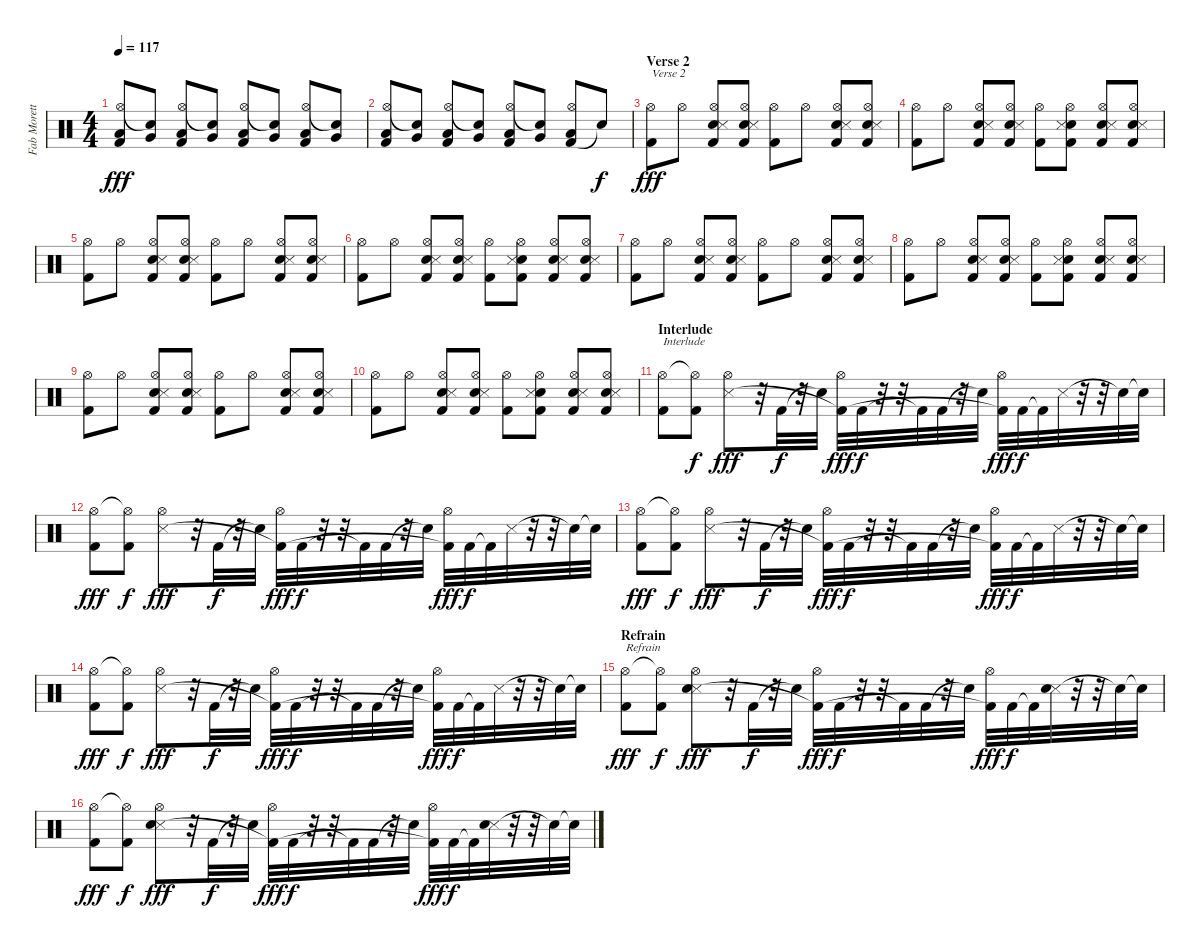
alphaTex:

\track ("Fab Moretti" "Fab Morett") {instrument percussion}
\staff {score}
\articulation defaults
\ts (4 4)
\tempo 117
\clef neutral
\ks c
("Kick (hit) 2" "Hi-Hat (open)" "Low Floor Tom (hit)").8{dy fff} ("Very Low Tom (hit)" "Snare (hit)"{t}).8 ("Kick (hit) 2" "Hi-Hat (open)" "Low Floor Tom (hit)").8 ("Very Low Tom (hit)" "Snare (hit)"{t}).8 ("Kick (hit) 2" "Hi-Hat (open)" "Low Floor Tom (hit)").8 ("Very Low Tom (hit)" "Snare (hit)"{t}).8 ("Kick (hit) 2" "Hi-Hat (open)" "Low Floor Tom (hit)").8 ("Very Low Tom (hit)" "Snare (hit)"{t}).8 |
("Kick (hit) 2" "Hi-Hat (open)" "Low Floor Tom (hit)").8 ("Very Low Tom (hit)" "Snare (hit)"{t}).8 ("Kick (hit) 2" "Hi-Hat (open)" "Low Floor Tom (hit)").8 ("Very Low Tom (hit)" "Snare (hit)"{t}).8 ("Kick (hit) 2" "Hi-Hat (open)" "Low Floor Tom (hit)").8 ("Very Low Tom (hit)" "Snare (hit)"{t}).8 ("Kick (hit) 2" "Hi-Hat (open)" "Low Floor Tom (hit)").8 "Snare (hit)"{t}.8{dy f} |
\section ("" "Verse 2")
("Kick (hit) 2" "Hi-Hat (open)").8{txt "Verse 2" dy fff} "Hi-Hat (open)".8 ("Snare (hit) 2" "Snare (side stick) 3" "Kick (hit) 2" "Hi-Hat (open)").8 ("Snare (hit) 2" "Snare (side stick) 3" "Kick (hit) 2" "Hi-Hat (open)").8 ("Kick (hit) 2" "Hi-Hat (open)").8 "Hi-Hat (open)".8 ("Snare (hit) 2" "Snare (side stick) 3" "Kick (hit) 2" "Hi-Hat (open)").8 ("Snare (hit) 2" "Snare (side stick) 3" "Kick (hit) 2" "Hi-Hat (open)").8 |
("Kick (hit) 2" "Hi-Hat (open)").8 "Hi-Hat (open)".8 ("Snare (hit) 2" "Snare (side stick) 3" "Kick (hit) 2" "Hi-Hat (open)").8 ("Snare (hit) 2" "Snare (side stick) 3" "Kick (hit) 2" "Hi-Hat (open)").8 ("Kick (hit) 2" "Hi-Hat (open)").8 ("Snare (hit) 2" "Snare (side stick) 3" "Kick (hit) 2" "Hi-Hat (open)").8 ("Snare (hit) 2" "Snare (side stick) 3" "Kick (hit) 2" "Hi-Hat (open)").8 ("Snare (hit) 2" "Snare (side stick) 3" "Kick (hit) 2" "Hi-Hat (open)").8 |
("Kick (hit) 2" "Hi-Hat (open)").8 "Hi-Hat (open)".8 ("Snare (hit) 2" "Snare (side stick) 3" "Kick (hit) 2" "Hi-Hat (open)").8 ("Snare (hit) 2" "Snare (side stick) 3" "Kick (hit) 2" "Hi-Hat (open)").8 ("Kick (hit) 2" "Hi-Hat (open)").8 "Hi-Hat (open)".8 ("Snare (hit) 2" "Snare (side stick) 3" "Kick (hit) 2" "Hi-Hat (open)").8 ("Snare (hit) 2" "Snare (side stick) 3" "Kick (hit) 2" "Hi-Hat (open)").8 |
("Kick (hit) 2" "Hi-Hat (open)").8 "Hi-Hat (open)".8 ("Snare (hit) 2" "Snare (side stick) 3" "Kick (hit) 2" "Hi-Hat (open)").8 ("Snare (hit) 2" "Snare (side stick) 3" "Kick (hit) 2" "Hi-Hat (open)").8 ("Kick (hit) 2" "Hi-Hat (open)").8 ("Snare (hit) 2" "Snare (side stick) 3" "Kick (hit) 2" "Hi-Hat (open)").8 ("Snare (hit) 2" "Snare (side stick) 3" "Kick (hit) 2" "Hi-Hat (open)").8 ("Snare (hit) 2" "Snare (side stick) 3" "Kick (hit) 2" "Hi-Hat (open)").8 |
("Kick (hit) 2" "Hi-Hat (open)").8 "Hi-Hat (open)".8 ("Snare (hit) 2" "Snare (side stick) 3" "Kick (hit) 2" "Hi-Hat (open)").8 ("Snare (hit) 2" "Snare (side stick) 3" "Kick (hit) 2" "Hi-Hat (open)").8 ("Kick (hit) 2" "Hi-Hat (open)").8 "Hi-Hat (open)".8 ("Snare (hit) 2" "Snare (side stick) 3" "Kick (hit) 2" "Hi-Hat (open)").8 ("Snare (hit) 2" "Snare (side stick) 3" "Kick (hit) 2" "Hi-Hat (open)").8 |
("Kick (hit) 2" "Hi-Hat (open)").8 "Hi-Hat (open)".8 ("Snare (hit) 2" "Snare (side stick) 3" "Kick (hit) 2" "Hi-Hat (open)").8 ("Snare (hit) 2" "Snare (side stick) 3" "Kick (hit) 2" "Hi-Hat (open)").8 ("Kick (hit) 2" "Hi-Hat (open)").8 ("Snare (hit) 2" "Snare (side stick) 3" "Kick (hit) 2" "Hi-Hat (open)").8 ("Snare (hit) 2" "Snare (side stick) 3" "Kick (hit) 2" "Hi-Hat (open)").8 ("Snare (hit) 2" "Snare (side stick) 3" "Kick (hit) 2" "Hi-Hat (open)").8 |
("Kick (hit) 2" "Hi-Hat (open)").8 "Hi-Hat (open)".8 ("Snare (hit) 2" "Snare (side stick) 3" "Kick (hit) 2" "Hi-Hat (open)").8 ("Snare (hit) 2" "Snare (side stick) 3" "Kick (hit) 2" "Hi-Hat (open)").8 ("Kick (hit) 2" "Hi-Hat (open)").8 "Hi-Hat (open)".8 ("Snare (hit) 2" "Snare (side stick) 3" "Kick (hit) 2" "Hi-Hat (open)").8 ("Snare (hit) 2" "Snare (side stick) 3" "Kick (hit) 2" "Hi-Hat (open)").8 |
("Kick (hit) 2" "Hi-Hat (open)").8 "Hi-Hat (open)".8 ("Snare (hit) 2" "Snare (side stick) 3" "Kick (hit) 2" "Hi-Hat (open)").8 ("Snare (hit) 2" "Snare (side stick) 3" "Kick (hit) 2" "Hi-Hat (open)").8 ("Kick (hit) 2" "Hi-Hat (open)").8 ("Snare (hit) 2" "Snare (side stick) 3" "Kick (hit) 2" "Hi-Hat (open)").8 ("Snare (hit) 2" "Snare (side stick) 3" "Kick (hit) 2" "Hi-Hat (open)").8 ("Snare (hit) 2" "Snare (side stick) 3" "Kick (hit) 2" "Hi-Hat (open)").8 |
\section ("" "Interlude")
("Hi-Hat (open)" "Kick (hit) 2").8{txt "Interlude"} ("Hi-Hat (open)"{t} "Kick (hit) 2").8{dy f} ("Hi-Hat (open)" "Snare (side stick) 3").8{dy fff} r.32 "Kick (hit) 2".32{dy f} r.32 "Snare (hit)"{t}.32 ("Hi-Hat (open)" "Kick (hit) 2"{t}).32{dy fff} "Kick (hit) 2".32{dy f} r.32 r.32 "Kick (hit) 2"{t}.32 "Kick (hit) 2".32 r.32 "Snare (hit)"{t}.32 ("Hi-Hat (open)" "Kick (hit) 2"{t}).32{dy fff} "Kick (hit) 2".32{dy f} "Kick (hit) 2"{t}.32 "Snare (side stick) 3".32 r.32 r.32 "Snare (hit)"{t}.32 "Snare (hit)"{t}.32 |
("Hi-Hat (open)" "Kick (hit) 2").8{dy fff} ("Hi-Hat (open)"{t} "Kick (hit) 2").8{dy f} ("Hi-Hat (open)" "Snare (side stick) 3").8{dy fff} r.32 "Kick (hit) 2".32{dy f} r.32 "Snare (hit)"{t}.32 ("Hi-Hat (open)" "Kick (hit) 2"{t}).32{dy fff} "Kick (hit) 2".32{dy f} r.32 r.32 "Kick (hit) 2"{t}.32 "Kick (hit) 2".32 r.32 "Snare (hit)"{t}.32 ("Hi-Hat (open)" "Kick (hit) 2"{t}).32{dy fff} "Kick (hit) 2".32{dy f} "Kick (hit) 2"{t}.32 "Snare (side stick) 3".32 r.32 r.32 "Snare (hit)"{t}.32 "Snare (hit)"{t}.32 |
("Hi-Hat (open)" "Kick (hit) 2").8{dy fff} ("Hi-Hat (open)"{t} "Kick (hit) 2").8{dy f} ("Hi-Hat (open)" "Snare (side stick) 3").8{dy fff} r.32 "Kick (hit) 2".32{dy f} r.32 "Snare (hit)"{t}.32 ("Hi-Hat (open)" "Kick (hit) 2"{t}).32{dy fff} "Kick (hit) 2".32{dy f} r.32 r.32 "Kick (hit) 2"{t}.32 "Kick (hit) 2".32 r.32 "Snare (hit)"{t}.32 ("Hi-Hat (open)" "Kick (hit) 2"{t}).32{dy fff} "Kick (hit) 2".32{dy f} "Kick (hit) 2"{t}.32 "Snare (side stick) 3".32 r.32 r.32 "Snare (hit)"{t}.32 "Snare (hit)"{t}.32 |
("Hi-Hat (open)" "Kick (hit) 2").8{dy fff} ("Hi-Hat (open)"{t} "Kick (hit) 2").8{dy f} ("Hi-Hat (open)" "Snare (side stick) 3").8{dy fff} r.32 "Kick (hit) 2".32{dy f} r.32 "Snare (hit)"{t}.32 ("Hi-Hat (open)" "Kick (hit) 2"{t}).32{dy fff} "Kick (hit) 2".32{dy f} r.32 r.32 "Kick (hit) 2"{t}.32 "Kick (hit) 2".32 r.32 "Snare (hit)"{t}.32 ("Hi-Hat (open)" "Kick (hit) 2"{t}).32{dy fff} "Kick (hit) 2".32{dy f} "Kick (hit) 2"{t}.32 "Snare (side stick) 3".32 r.32 r.32 "Snare (hit)"{t}.32 "Snare (hit)"{t}.32 |
\section ("" "Refrain")
("Hi-Hat (open)" "Kick (hit) 2").8{txt "Refrain" dy fff} ("Hi-Hat (open)"{t} "Kick (hit) 2").8{dy f} ("Hi-Hat (open)" "Snare (side stick) 3" "Snare (hit) 2").8{dy fff} r.32 "Kick (hit) 2".32{dy f} r.32 "Snare (hit)"{t}.32 ("Hi-Hat (open)" "Kick (hit) 2"{t}).32{dy fff} "Kick (hit) 2".32{dy f} r.32 r.32 "Kick (hit) 2"{t}.32 "Kick (hit) 2".32 r.32 "Snare (hit)"{t}.32 ("Hi-Hat (open)" "Kick (hit) 2"{t}).32{dy fff} "Kick (hit) 2".32{dy f} "Kick (hit) 2"{t}.32 ("Snare (side stick) 3" "Snare (hit) 2").32 r.32 r.32 "Snare (hit)"{t}.32 "Snare (hit)"{t}.32 |
("Hi-Hat (open)" "Kick (hit) 2").8{dy fff} ("Hi-Hat (open)"{t} "Kick (hit) 2").8{dy f} ("Hi-Hat (open)" "Snare (side stick) 3" "Snare (hit) 2").8{dy fff} r.32 "Kick (hit) 2".32{dy f} r.32 "Snare (hit)"{t}.32 ("Hi-Hat (open)" "Kick (hit) 2"{t}).32{dy fff} "Kick (hit) 2".32{dy f} r.32 r.32 "Kick (hit) 2"{t}.32 "Kick (hit) 2".32 r.32 "Snare (hit)"{t}.32 ("Hi-Hat (open)" "Kick (hit) 2"{t}).32{dy fff} "Kick (hit) 2".32{dy f} "Kick (hit) 2"{t}.32 ("Snare (side stick) 3" "Snare (hit) 2").32 r.32 r.32 "Snare (hit)"{t}.32 "Snare (hit)"{t}.32
